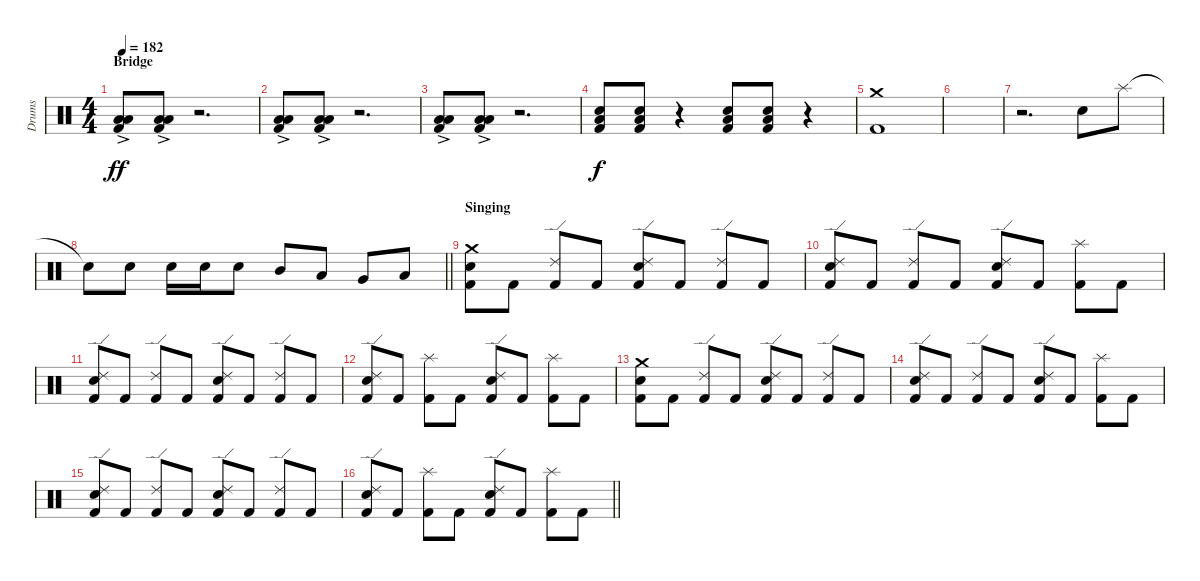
\track ("Drums" "Drums") {instrument percussion}
\staff {score}
\articulation defaults
\ts (4 4)
\section ("" "Bridge")
\tempo 182
\clef neutral
\ks c
("Kick (hit) 2" "Low Floor Tom (hit)"{ac} "Low Floor Tom (hit)").8{dy ff} ("Kick (hit) 2" "Low Floor Tom (hit)"{ac} "Low Floor Tom (hit)").8 r.2{d} |
("Kick (hit) 2" "Low Floor Tom (hit)"{ac} "Low Floor Tom (hit)").8 ("Kick (hit) 2" "Low Floor Tom (hit)"{ac} "Low Floor Tom (hit)").8 r.2{d} |
("Kick (hit) 2" "Low Floor Tom (hit)"{ac} "Low Floor Tom (hit)").8 ("Kick (hit) 2" "Low Floor Tom (hit)"{ac} "Low Floor Tom (hit)").8 r.2{d} |
("Kick (hit) 2" "Snare (hit) 2" "Low Floor Tom (hit)").8{dy f} ("Kick (hit) 2" "Snare (hit) 2" "Low Floor Tom (hit)").8 r.4 ("Kick (hit) 2" "Snare (hit) 2" "Low Floor Tom (hit)").8 ("Kick (hit) 2" "Snare (hit) 2" "Low Floor Tom (hit)").8 r.4 |
("Kick (hit) 2" "Crash medium (hit)").1 |
|
r.2{d} "Snare (hit) 2".8 "Splash (hit)".8 |
\barLineRight lightlight "Snare (hit)"{t}.8 "Snare (hit) 2".8 "Snare (hit) 2".16 "Snare (hit) 2".16 "Snare (hit) 2".8 "Mid Tom (hit)".8 "Low Tom (hit)".8 "Very Low Tom (hit)".8 "Low Floor Tom (hit)".8
|
\section ("" "Singing")
("Kick (hit) 2" "Snare (hit) 2" "Crash medium (hit)").8 "Kick (hit) 2".8 ("Kick (hit) 2" "Ride (edge) 2").8 "Kick (hit) 2".8 ("Kick (hit) 2" "Snare (hit) 2" "Ride (edge) 2").8 "Kick (hit) 2".8 ("Kick (hit) 2" "Ride (edge) 2").8 "Kick (hit) 2".8 |
("Kick (hit) 2" "Snare (hit) 2" "Ride (edge) 2").8 "Kick (hit) 2".8 ("Kick (hit) 2" "Ride (edge) 2").8 "Kick (hit) 2".8 ("Kick (hit) 2" "Snare (hit) 2" "Ride (edge) 2").8 "Kick (hit) 2".8 ("Kick (hit) 2" "Splash (hit)").8 "Kick (hit) 2".8 |
("Kick (hit) 2" "Snare (hit) 2" "Ride (edge) 2").8 "Kick (hit) 2".8 ("Kick (hit) 2" "Ride (edge) 2").8 "Kick (hit) 2".8 ("Kick (hit) 2" "Snare (hit) 2" "Ride (edge) 2").8 "Kick (hit) 2".8 ("Kick (hit) 2" "Ride (edge) 2").8 "Kick (hit) 2".8 |
("Kick (hit) 2" "Snare (hit) 2" "Ride (edge) 2").8 "Kick (hit) 2".8 ("Kick (hit) 2" "Splash (hit)").8 "Kick (hit) 2".8 ("Kick (hit) 2" "Snare (hit) 2" "Ride (edge) 2").8 "Kick (hit) 2".8 ("Kick (hit) 2" "Splash (hit)").8 "Kick (hit) 2".8 |
("Kick (hit) 2" "Snare (hit) 2" "Crash medium (hit)").8 "Kick (hit) 2".8 ("Kick (hit) 2" "Ride (edge) 2").8 "Kick (hit) 2".8 ("Kick (hit) 2" "Snare (hit) 2" "Ride (edge) 2").8 "Kick (hit) 2".8 ("Kick (hit) 2" "Ride (edge) 2").8 "Kick (hit) 2".8 |
("Kick (hit) 2" "Snare (hit) 2" "Ride (edge) 2").8 "Kick (hit) 2".8 ("Kick (hit) 2" "Ride (edge) 2").8 "Kick (hit) 2".8 ("Kick (hit) 2" "Snare (hit) 2" "Ride (edge) 2").8 "Kick (hit) 2".8 ("Kick (hit) 2" "Splash (hit)").8 "Kick (hit) 2".8 |
("Kick (hit) 2" "Snare (hit) 2" "Ride (edge) 2").8 "Kick (hit) 2".8 ("Kick (hit) 2" "Ride (edge) 2").8 "Kick (hit) 2".8 ("Kick (hit) 2" "Snare (hit) 2" "Ride (edge) 2").8 "Kick (hit) 2".8 ("Kick (hit) 2" "Ride (edge) 2").8 "Kick (hit) 2".8 |
\barLineRight lightlight
("Kick (hit) 2" "Snare (hit) 2" "Ride (edge) 2").8 "Kick (hit) 2".8 ("Kick (hit) 2" "Splash (hit)").8 "Kick (hit) 2".8 ("Kick (hit) 2" "Snare (hit) 2" "Ride (edge) 2").8 "Kick (hit) 2".8 ("Kick (hit) 2" "Splash (hit)").8 "Kick (hit) 2".8
